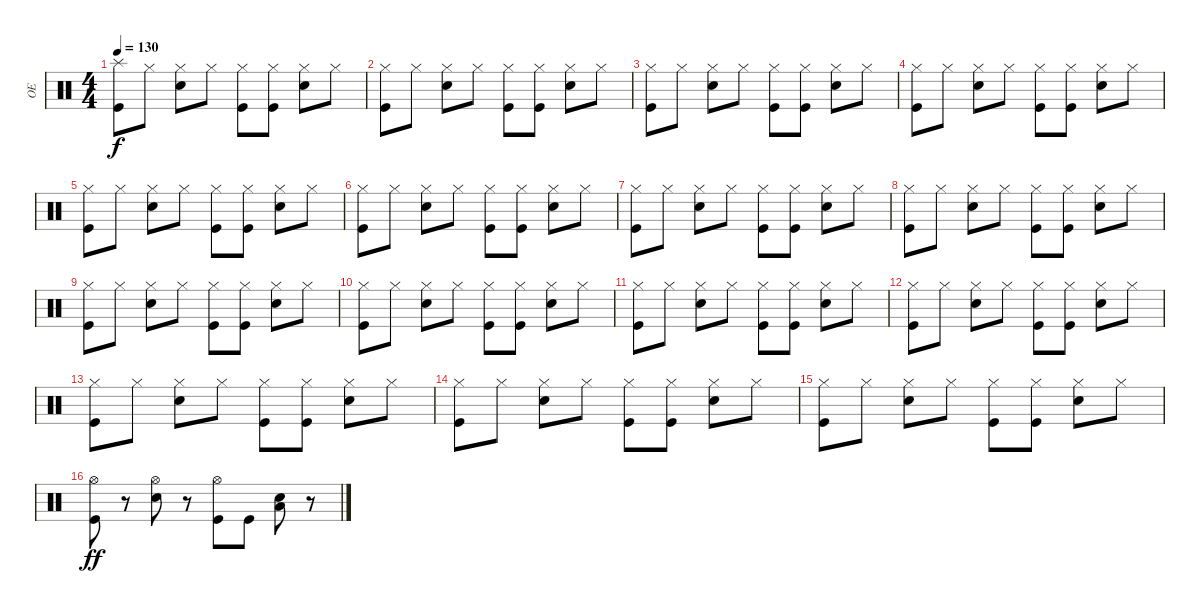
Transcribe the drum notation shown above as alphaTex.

\track ("OE" "OE") {instrument percussion}
\staff {score}
\articulation defaults
\ts (4 4)
\tempo 130
\clef neutral
\ks c
("Splash (hit)" "Kick (hit)").8{dy f} "Hi-Hat (closed)".8 ("Hi-Hat (closed)" "Snare (hit) 2").8 "Hi-Hat (closed)".8 ("Hi-Hat (closed)" "Kick (hit)").8 ("Hi-Hat (closed)" "Kick (hit)").8 ("Hi-Hat (closed)" "Snare (hit) 2").8 "Hi-Hat (closed)".8 |
("Hi-Hat (closed)" "Kick (hit)").8 "Hi-Hat (closed)".8 ("Hi-Hat (closed)" "Snare (hit) 2").8 "Hi-Hat (closed)".8 ("Hi-Hat (closed)" "Kick (hit)").8 ("Hi-Hat (closed)" "Kick (hit)").8 ("Hi-Hat (closed)" "Snare (hit) 2").8 "Hi-Hat (closed)".8 |
("Hi-Hat (closed)" "Kick (hit)").8 "Hi-Hat (closed)".8 ("Hi-Hat (closed)" "Snare (hit) 2").8 "Hi-Hat (closed)".8 ("Hi-Hat (closed)" "Kick (hit)").8 ("Hi-Hat (closed)" "Kick (hit)").8 ("Hi-Hat (closed)" "Snare (hit) 2").8 "Hi-Hat (closed)".8 |
("Hi-Hat (closed)" "Kick (hit)").8 "Hi-Hat (closed)".8 ("Hi-Hat (closed)" "Snare (hit) 2").8 "Hi-Hat (closed)".8 ("Hi-Hat (closed)" "Kick (hit)").8 ("Hi-Hat (closed)" "Kick (hit)").8 ("Hi-Hat (closed)" "Snare (hit) 2").8 "Hi-Hat (closed)".8 |
("Hi-Hat (closed)" "Kick (hit)").8 "Hi-Hat (closed)".8 ("Hi-Hat (closed)" "Snare (hit) 2").8 "Hi-Hat (closed)".8 ("Hi-Hat (closed)" "Kick (hit)").8 ("Hi-Hat (closed)" "Kick (hit)").8 ("Hi-Hat (closed)" "Snare (hit) 2").8 "Hi-Hat (closed)".8 |
("Hi-Hat (closed)" "Kick (hit)").8 "Hi-Hat (closed)".8 ("Hi-Hat (closed)" "Snare (hit) 2").8 "Hi-Hat (closed)".8 ("Hi-Hat (closed)" "Kick (hit)").8 ("Hi-Hat (closed)" "Kick (hit)").8 ("Hi-Hat (closed)" "Snare (hit) 2").8 "Hi-Hat (closed)".8 |
("Hi-Hat (closed)" "Kick (hit)").8 "Hi-Hat (closed)".8 ("Hi-Hat (closed)" "Snare (hit) 2").8 "Hi-Hat (closed)".8 ("Hi-Hat (closed)" "Kick (hit)").8 ("Hi-Hat (closed)" "Kick (hit)").8 ("Hi-Hat (closed)" "Snare (hit) 2").8 "Hi-Hat (closed)".8 |
("Hi-Hat (closed)" "Kick (hit)").8 "Hi-Hat (closed)".8 ("Hi-Hat (closed)" "Snare (hit) 2").8 "Hi-Hat (closed)".8 ("Hi-Hat (closed)" "Kick (hit)").8 ("Hi-Hat (closed)" "Kick (hit)").8 ("Hi-Hat (closed)" "Snare (hit) 2").8 "Hi-Hat (closed)".8 |
("Hi-Hat (closed)" "Kick (hit)").8 "Hi-Hat (closed)".8 ("Hi-Hat (closed)" "Snare (hit) 2").8 "Hi-Hat (closed)".8 ("Hi-Hat (closed)" "Kick (hit)").8 ("Hi-Hat (closed)" "Kick (hit)").8 ("Hi-Hat (closed)" "Snare (hit) 2").8 "Hi-Hat (closed)".8 |
("Hi-Hat (closed)" "Kick (hit)").8 "Hi-Hat (closed)".8 ("Hi-Hat (closed)" "Snare (hit) 2").8 "Hi-Hat (closed)".8 ("Hi-Hat (closed)" "Kick (hit)").8 ("Hi-Hat (closed)" "Kick (hit)").8 ("Hi-Hat (closed)" "Snare (hit) 2").8 "Hi-Hat (closed)".8 |
("Hi-Hat (closed)" "Kick (hit)").8 "Hi-Hat (closed)".8 ("Hi-Hat (closed)" "Snare (hit) 2").8 "Hi-Hat (closed)".8 ("Hi-Hat (closed)" "Kick (hit)").8 ("Hi-Hat (closed)" "Kick (hit)").8 ("Hi-Hat (closed)" "Snare (hit) 2").8 "Hi-Hat (closed)".8 |
("Hi-Hat (closed)" "Kick (hit)").8 "Hi-Hat (closed)".8 ("Hi-Hat (closed)" "Snare (hit) 2").8 "Hi-Hat (closed)".8 ("Hi-Hat (closed)" "Kick (hit)").8 ("Hi-Hat (closed)" "Kick (hit)").8 ("Hi-Hat (closed)" "Snare (hit) 2").8 "Hi-Hat (closed)".8 |
("Hi-Hat (closed)" "Kick (hit)").8 "Hi-Hat (closed)".8 ("Hi-Hat (closed)" "Snare (hit) 2").8 "Hi-Hat (closed)".8 ("Hi-Hat (closed)" "Kick (hit)").8 ("Hi-Hat (closed)" "Kick (hit)").8 ("Hi-Hat (closed)" "Snare (hit) 2").8 "Hi-Hat (closed)".8 |
("Hi-Hat (closed)" "Kick (hit)").8 "Hi-Hat (closed)".8 ("Hi-Hat (closed)" "Snare (hit) 2").8 "Hi-Hat (closed)".8 ("Hi-Hat (closed)" "Kick (hit)").8 ("Hi-Hat (closed)" "Kick (hit)").8 ("Hi-Hat (closed)" "Snare (hit) 2").8 "Hi-Hat (closed)".8 |
("Hi-Hat (closed)" "Kick (hit)").8 "Hi-Hat (closed)".8 ("Hi-Hat (closed)" "Snare (hit) 2").8 "Hi-Hat (closed)".8 ("Hi-Hat (closed)" "Kick (hit)").8 ("Hi-Hat (closed)" "Kick (hit)").8 ("Hi-Hat (closed)" "Snare (hit) 2").8 "Hi-Hat (closed)".8 |
("Kick (hit)" "Hi-Hat (open)").8{dy ff} r.8 ("Snare (hit) 2" "Hi-Hat (open)").8 r.8 ("Kick (hit)" "Hi-Hat (open)").8 "Kick (hit)".8 ("Snare (hit) 2" "Low Tom (hit)").8 r.8
